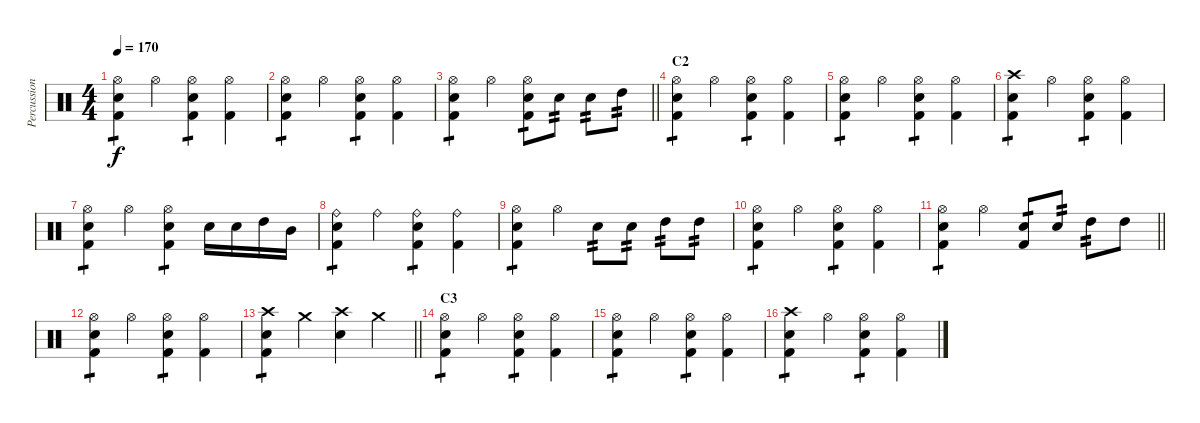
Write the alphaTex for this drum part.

\track ("Percussion" "Percussion") {instrument percussion}
\staff {score}
\articulation defaults
\ts (4 4)
\tempo 170
\clef neutral
\ks c
("Hi-Hat (open)" "Electric Snare (hit)" "Kick (hit) 2").4{tp 1 dy f} "Hi-Hat (open)".4 ("Hi-Hat (open)" "Electric Snare (hit)" "Kick (hit) 2").4{tp 1} ("Hi-Hat (open)" "Kick (hit) 2").4 |
("Hi-Hat (open)" "Electric Snare (hit)" "Kick (hit) 2").4{tp 1} "Hi-Hat (open)".4 ("Hi-Hat (open)" "Electric Snare (hit)" "Kick (hit) 2").4{tp 1} ("Hi-Hat (open)" "Kick (hit) 2").4 |
\barLineRight lightlight
("Hi-Hat (open)" "Electric Snare (hit)" "Kick (hit) 2").4{tp 1} "Hi-Hat (open)".4 ("Hi-Hat (open)" "Electric Snare (hit)" "Kick (hit) 2").8{tp 1} "Electric Snare (hit)".8{tp 2} "Electric Snare (hit)".8{tp 2} "High Tom (hit)".8{tp 2} |
\section ("" "C2")
("Hi-Hat (open)" "Electric Snare (hit)" "Kick (hit) 2").4{tp 1} "Hi-Hat (open)".4 ("Hi-Hat (open)" "Electric Snare (hit)" "Kick (hit) 2").4{tp 1} ("Hi-Hat (open)" "Kick (hit) 2").4 |
("Hi-Hat (open)" "Electric Snare (hit)" "Kick (hit) 2").4{tp 1} "Hi-Hat (open)".4 ("Hi-Hat (open)" "Electric Snare (hit)" "Kick (hit) 2").4{tp 1} ("Hi-Hat (open)" "Kick (hit) 2").4 |
("Crash high (hit)" "Electric Snare (hit)" "Kick (hit) 2").4{tp 1} "Hi-Hat (open)".4 ("Hi-Hat (open)" "Electric Snare (hit)" "Kick (hit) 2").4{tp 1} ("Hi-Hat (open)" "Kick (hit) 2").4 |
("Hi-Hat (open)" "Electric Snare (hit)" "Kick (hit) 2").4{tp 1} "Hi-Hat (open)".4 ("Hi-Hat (open)" "Electric Snare (hit)" "Kick (hit) 2").4{tp 1} "Electric Snare (hit)".16 "Electric Snare (hit)".16 "High Tom (hit)".16 "Mid Tom (hit)".16 |
("Ride (bell)" "Electric Snare (hit)" "Kick (hit) 2").4{tp 1} "Ride (bell)".4 ("Ride (bell)" "Electric Snare (hit)" "Kick (hit) 2").4{tp 1} ("Ride (bell)" "Kick (hit) 2").4 |
("Hi-Hat (open)" "Electric Snare (hit)" "Kick (hit) 2").4{tp 1} "Hi-Hat (open)".4 "Electric Snare (hit)".8{tp 2} "Electric Snare (hit)".8{tp 2} "High Tom (hit)".8{tp 2} "High Tom (hit)".8{tp 2} |
("Hi-Hat (open)" "Electric Snare (hit)" "Kick (hit) 2").4{tp 1} "Hi-Hat (open)".4 ("Hi-Hat (open)" "Electric Snare (hit)" "Kick (hit) 2").4{tp 1} ("Hi-Hat (open)" "Kick (hit) 2").4 |
\barLineRight lightlight
("Hi-Hat (open)" "Electric Snare (hit)" "Kick (hit) 2").4{tp 1} "Hi-Hat (open)".4 ("Electric Snare (hit)" "Kick (hit) 2").8{tp 1} "Electric Snare (hit)".8{tp 2} "High Tom (hit)".8{tp 2} "High Tom (hit)".8 |
("Hi-Hat (open)" "Electric Snare (hit)" "Kick (hit) 2").4{tp 1} "Hi-Hat (open)".4 ("Hi-Hat (open)" "Electric Snare (hit)" "Kick (hit) 2").4{tp 1} ("Hi-Hat (open)" "Kick (hit) 2").4 |
\barLineRight lightlight
("Crash high (hit)" "Electric Snare (hit)" "Kick (hit) 2").4{tp 1} "Crash medium (hit)".4 ("Crash high (hit)" "Electric Snare (hit)").4 "Crash medium (hit)".4 |
\section ("" "C3")
("Hi-Hat (open)" "Electric Snare (hit)" "Kick (hit) 2").4{tp 1} "Hi-Hat (open)".4 ("Hi-Hat (open)" "Electric Snare (hit)" "Kick (hit) 2").4{tp 1} ("Hi-Hat (open)" "Kick (hit) 2").4 |
("Hi-Hat (open)" "Electric Snare (hit)" "Kick (hit) 2").4{tp 1} "Hi-Hat (open)".4 ("Hi-Hat (open)" "Electric Snare (hit)" "Kick (hit) 2").4{tp 1} ("Hi-Hat (open)" "Kick (hit) 2").4 |
("Crash high (hit)" "Electric Snare (hit)" "Kick (hit) 2").4{tp 1} "Hi-Hat (open)".4 ("Hi-Hat (open)" "Electric Snare (hit)" "Kick (hit) 2").4{tp 1} ("Hi-Hat (open)" "Kick (hit) 2").4
